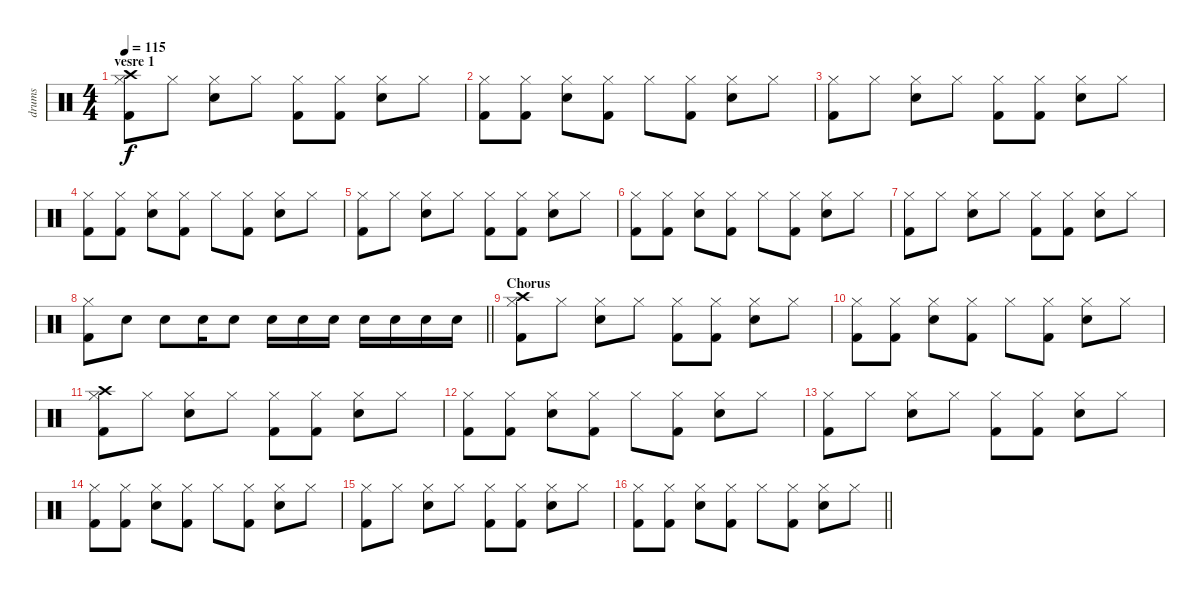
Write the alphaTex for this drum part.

\track ("drums" "drums") {instrument percussion}
\staff {score}
\articulation defaults
\ts (4 4)
\section ("" "vesre 1")
\tempo 115
\clef neutral
\ks c
("Hi-Hat (closed)" "Crash high (hit)" "Kick (hit) 2").8{dy f} "Hi-Hat (closed)".8 ("Hi-Hat (closed)" "Electric Snare (hit)").8 "Hi-Hat (closed)".8 ("Hi-Hat (closed)" "Kick (hit) 2").8 ("Hi-Hat (closed)" "Kick (hit) 2").8 ("Hi-Hat (closed)" "Electric Snare (hit)").8 "Hi-Hat (closed)".8 |
("Hi-Hat (closed)" "Kick (hit) 2").8 ("Hi-Hat (closed)" "Kick (hit) 2").8 ("Hi-Hat (closed)" "Electric Snare (hit)").8 ("Hi-Hat (closed)" "Kick (hit) 2").8 "Hi-Hat (closed)".8 ("Hi-Hat (closed)" "Kick (hit) 2").8 ("Hi-Hat (closed)" "Electric Snare (hit)").8 "Hi-Hat (closed)".8 |
("Hi-Hat (closed)" "Kick (hit) 2").8 "Hi-Hat (closed)".8 ("Hi-Hat (closed)" "Electric Snare (hit)").8 "Hi-Hat (closed)".8 ("Hi-Hat (closed)" "Kick (hit) 2").8 ("Hi-Hat (closed)" "Kick (hit) 2").8 ("Hi-Hat (closed)" "Electric Snare (hit)").8 "Hi-Hat (closed)".8 |
("Hi-Hat (closed)" "Kick (hit) 2").8 ("Hi-Hat (closed)" "Kick (hit) 2").8 ("Hi-Hat (closed)" "Electric Snare (hit)").8 ("Hi-Hat (closed)" "Kick (hit) 2").8 "Hi-Hat (closed)".8 ("Hi-Hat (closed)" "Kick (hit) 2").8 ("Hi-Hat (closed)" "Electric Snare (hit)").8 "Hi-Hat (closed)".8 |
("Hi-Hat (closed)" "Kick (hit) 2").8 "Hi-Hat (closed)".8 ("Hi-Hat (closed)" "Electric Snare (hit)").8 "Hi-Hat (closed)".8 ("Hi-Hat (closed)" "Kick (hit) 2").8 ("Hi-Hat (closed)" "Kick (hit) 2").8 ("Hi-Hat (closed)" "Electric Snare (hit)").8 "Hi-Hat (closed)".8 |
("Hi-Hat (closed)" "Kick (hit) 2").8 ("Hi-Hat (closed)" "Kick (hit) 2").8 ("Hi-Hat (closed)" "Electric Snare (hit)").8 ("Hi-Hat (closed)" "Kick (hit) 2").8 "Hi-Hat (closed)".8 ("Hi-Hat (closed)" "Kick (hit) 2").8 ("Hi-Hat (closed)" "Electric Snare (hit)").8 "Hi-Hat (closed)".8 |
("Hi-Hat (closed)" "Kick (hit) 2").8 "Hi-Hat (closed)".8 ("Hi-Hat (closed)" "Electric Snare (hit)").8 "Hi-Hat (closed)".8 ("Hi-Hat (closed)" "Kick (hit) 2").8 ("Hi-Hat (closed)" "Kick (hit) 2").8 ("Hi-Hat (closed)" "Electric Snare (hit)").8 "Hi-Hat (closed)".8 |
\barLineRight lightlight
("Hi-Hat (closed)" "Kick (hit) 2").8 "Electric Snare (hit)".8 "Electric Snare (hit)".8 "Electric Snare (hit)".16 "Electric Snare (hit)".8 "Electric Snare (hit)".16 "Electric Snare (hit)".16 "Electric Snare (hit)".16 "Electric Snare (hit)".16 "Electric Snare (hit)".16 "Electric Snare (hit)".16 "Electric Snare (hit)".16 |
\section ("" "Chorus")
("Hi-Hat (closed)" "Crash high (hit)" "Kick (hit) 2").8 "Hi-Hat (closed)".8 ("Hi-Hat (closed)" "Electric Snare (hit)").8 "Hi-Hat (closed)".8 ("Hi-Hat (closed)" "Kick (hit) 2").8 ("Hi-Hat (closed)" "Kick (hit) 2").8 ("Hi-Hat (closed)" "Electric Snare (hit)").8 "Hi-Hat (closed)".8 |
("Hi-Hat (closed)" "Kick (hit) 2").8 ("Hi-Hat (closed)" "Kick (hit) 2").8 ("Hi-Hat (closed)" "Electric Snare (hit)").8 ("Hi-Hat (closed)" "Kick (hit) 2").8 "Hi-Hat (closed)".8 ("Hi-Hat (closed)" "Kick (hit) 2").8 ("Hi-Hat (closed)" "Electric Snare (hit)").8 "Hi-Hat (closed)".8 |
("Hi-Hat (closed)" "Crash high (hit)" "Kick (hit) 2").8 "Hi-Hat (closed)".8 ("Hi-Hat (closed)" "Electric Snare (hit)").8 "Hi-Hat (closed)".8 ("Hi-Hat (closed)" "Kick (hit) 2").8 ("Hi-Hat (closed)" "Kick (hit) 2").8 ("Hi-Hat (closed)" "Electric Snare (hit)").8 "Hi-Hat (closed)".8 |
("Hi-Hat (closed)" "Kick (hit) 2").8 ("Hi-Hat (closed)" "Kick (hit) 2").8 ("Hi-Hat (closed)" "Electric Snare (hit)").8 ("Hi-Hat (closed)" "Kick (hit) 2").8 "Hi-Hat (closed)".8 ("Hi-Hat (closed)" "Kick (hit) 2").8 ("Hi-Hat (closed)" "Electric Snare (hit)").8 "Hi-Hat (closed)".8 |
("Hi-Hat (closed)" "Kick (hit) 2").8 "Hi-Hat (closed)".8 ("Hi-Hat (closed)" "Electric Snare (hit)").8 "Hi-Hat (closed)".8 ("Hi-Hat (closed)" "Kick (hit) 2").8 ("Hi-Hat (closed)" "Kick (hit) 2").8 ("Hi-Hat (closed)" "Electric Snare (hit)").8 "Hi-Hat (closed)".8 |
("Hi-Hat (closed)" "Kick (hit) 2").8 ("Hi-Hat (closed)" "Kick (hit) 2").8 ("Hi-Hat (closed)" "Electric Snare (hit)").8 ("Hi-Hat (closed)" "Kick (hit) 2").8 "Hi-Hat (closed)".8 ("Hi-Hat (closed)" "Kick (hit) 2").8 ("Hi-Hat (closed)" "Electric Snare (hit)").8 "Hi-Hat (closed)".8 |
("Hi-Hat (closed)" "Kick (hit) 2").8 "Hi-Hat (closed)".8 ("Hi-Hat (closed)" "Electric Snare (hit)").8 "Hi-Hat (closed)".8 ("Hi-Hat (closed)" "Kick (hit) 2").8 ("Hi-Hat (closed)" "Kick (hit) 2").8 ("Hi-Hat (closed)" "Electric Snare (hit)").8 "Hi-Hat (closed)".8 |
\barLineRight lightlight
("Hi-Hat (closed)" "Kick (hit) 2").8 ("Hi-Hat (closed)" "Kick (hit) 2").8 ("Hi-Hat (closed)" "Electric Snare (hit)").8 ("Hi-Hat (closed)" "Kick (hit) 2").8 "Hi-Hat (closed)".8 ("Hi-Hat (closed)" "Kick (hit) 2").8 ("Hi-Hat (closed)" "Electric Snare (hit)").8 "Hi-Hat (closed)".8
